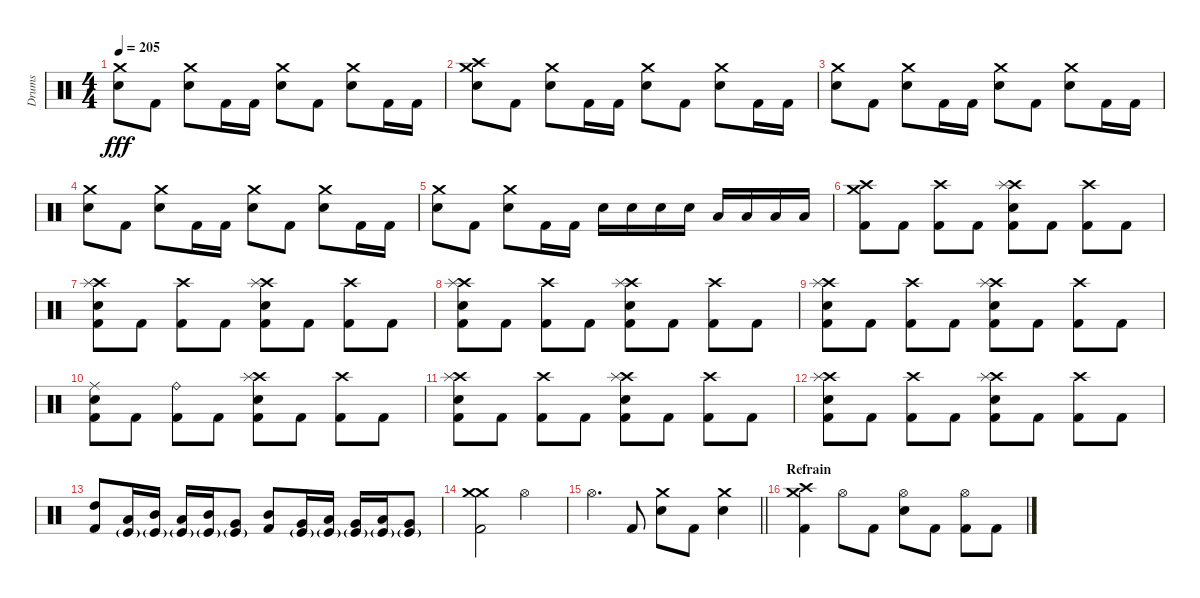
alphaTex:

\track ("Drums" "Drums") {instrument percussion}
\staff {score}
\articulation defaults
\ts (4 4)
\tempo 205
\clef neutral
\ks c
("Crash medium (hit)" "Electric Snare (hit)").8{dy fff} "Kick (hit) 2".8 ("Crash medium (hit)" "Electric Snare (hit)").8 "Kick (hit) 2".16 "Kick (hit) 2".16 ("Crash medium (hit)" "Electric Snare (hit)").8 "Kick (hit) 2".8 ("Crash medium (hit)" "Electric Snare (hit)").8 "Kick (hit) 2".16 "Kick (hit) 2".16 |
("Crash medium (hit)" "Crash high (hit)" "Electric Snare (hit)").8 "Kick (hit) 2".8 ("Crash medium (hit)" "Electric Snare (hit)").8 "Kick (hit) 2".16 "Kick (hit) 2".16 ("Crash medium (hit)" "Electric Snare (hit)").8 "Kick (hit) 2".8 ("Crash medium (hit)" "Electric Snare (hit)").8 "Kick (hit) 2".16 "Kick (hit) 2".16 |
("Crash medium (hit)" "Electric Snare (hit)").8 "Kick (hit) 2".8 ("Crash medium (hit)" "Electric Snare (hit)").8 "Kick (hit) 2".16 "Kick (hit) 2".16 ("Crash medium (hit)" "Electric Snare (hit)").8 "Kick (hit) 2".8 ("Crash medium (hit)" "Electric Snare (hit)").8 "Kick (hit) 2".16 "Kick (hit) 2".16 |
("Crash medium (hit)" "Electric Snare (hit)").8 "Kick (hit) 2".8 ("Crash medium (hit)" "Electric Snare (hit)").8 "Kick (hit) 2".16 "Kick (hit) 2".16 ("Crash medium (hit)" "Electric Snare (hit)").8 "Kick (hit) 2".8 ("Crash medium (hit)" "Electric Snare (hit)").8 "Kick (hit) 2".16 "Kick (hit) 2".16 |
("Crash medium (hit)" "Electric Snare (hit)").8 "Kick (hit) 2".8 ("Crash medium (hit)" "Electric Snare (hit)").8 "Kick (hit) 2".16 "Kick (hit) 2".16 "Electric Snare (hit)".16 "Electric Snare (hit)".16 "Electric Snare (hit)".16 "Electric Snare (hit)".16 "Low Tom (hit)".16 "Low Tom (hit)".16 "Low Tom (hit)".16 "Low Tom (hit)".16 |
("Crash medium (hit)" "Crash high (hit)" "Kick (hit) 2").8 "Kick (hit) 2".8 ("Crash high (hit)" "Kick (hit) 2").8 "Kick (hit) 2".8 ("Crash high (hit)" "Splash (hit)" "Electric Snare (hit)" "Kick (hit) 2").8 "Kick (hit) 2".8 ("Crash high (hit)" "Kick (hit) 2").8 "Kick (hit) 2".8 |
("Crash high (hit)" "Splash (hit)" "Electric Snare (hit)" "Kick (hit) 2").8 "Kick (hit) 2".8 ("Crash high (hit)" "Kick (hit) 2").8 "Kick (hit) 2".8 ("Crash high (hit)" "Splash (hit)" "Electric Snare (hit)" "Kick (hit) 2").8 "Kick (hit) 2".8 ("Crash high (hit)" "Kick (hit) 2").8 "Kick (hit) 2".8 |
("Crash high (hit)" "Splash (hit)" "Electric Snare (hit)" "Kick (hit) 2").8 "Kick (hit) 2".8 ("Crash high (hit)" "Kick (hit) 2").8 "Kick (hit) 2".8 ("Crash high (hit)" "Splash (hit)" "Electric Snare (hit)" "Kick (hit) 2").8 "Kick (hit) 2".8 ("Crash high (hit)" "Kick (hit) 2").8 "Kick (hit) 2".8 |
("Crash high (hit)" "Splash (hit)" "Electric Snare (hit)" "Kick (hit) 2").8 "Kick (hit) 2".8 ("Crash high (hit)" "Kick (hit) 2").8 "Kick (hit) 2".8 ("Crash high (hit)" "Splash (hit)" "Electric Snare (hit)" "Kick (hit) 2").8 "Kick (hit) 2".8 ("Crash high (hit)" "Kick (hit) 2").8 "Kick (hit) 2".8 |
("Ride (middle)" "Electric Snare (hit)" "Kick (hit) 2").8 "Kick (hit) 2".8 ("Ride (bell)" "Kick (hit) 2").8 "Kick (hit) 2".8 ("Crash high (hit)" "Splash (hit)" "Electric Snare (hit)" "Kick (hit) 2").8 "Kick (hit) 2".8 ("Crash high (hit)" "Kick (hit) 2").8 "Kick (hit) 2".8 |
("Crash high (hit)" "Splash (hit)" "Electric Snare (hit)" "Kick (hit) 2").8 "Kick (hit) 2".8 ("Crash high (hit)" "Kick (hit) 2").8 "Kick (hit) 2".8 ("Crash high (hit)" "Splash (hit)" "Electric Snare (hit)" "Kick (hit) 2").8 "Kick (hit) 2".8 ("Crash high (hit)" "Kick (hit) 2").8 "Kick (hit) 2".8 |
("Crash high (hit)" "Splash (hit)" "Electric Snare (hit)" "Kick (hit) 2").8 "Kick (hit) 2".8 ("Crash high (hit)" "Kick (hit) 2").8 "Kick (hit) 2".8 ("Crash high (hit)" "Splash (hit)" "Electric Snare (hit)" "Kick (hit) 2").8 "Kick (hit) 2".8 ("Crash high (hit)" "Kick (hit) 2").8 "Kick (hit) 2".8 |
("High Tom (hit)" "Kick (hit) 2").8 ("Low Tom (hit)" "Kick (hit)"{g}).16 ("Mid Tom (hit)" "Kick (hit)"{g}).16 ("Low Tom (hit)" "Kick (hit)"{g}).16 ("Mid Tom (hit)" "Kick (hit)"{g}).16 ("Very Low Tom (hit)" "Kick (hit)"{g}).8 ("Mid Tom (hit)" "Kick (hit) 2").8 ("Very Low Tom (hit)" "Kick (hit)"{g}).16 ("Low Tom (hit)" "Kick (hit)"{g}).16 ("Very Low Tom (hit)" "Kick (hit)"{g}).16 ("Low Tom (hit)" "Kick (hit)"{g}).16 ("Very Low Tom (hit)" "Kick (hit)"{g}).8 |
("Crash medium (hit)" "Crash medium (hit)" "Kick (hit) 2").2 "Hi-Hat (open)".2 |
\barLineRight lightlight "Hi-Hat (open)".4{d} "Kick (hit) 2".8
("Crash medium (hit)" "Electric Snare (hit)").8 "Kick (hit) 2".8 ("Crash medium (hit)" "Electric Snare (hit)").4 |
\section ("" "Refrain ")
("Crash medium (hit)" "Crash high (hit)" "Kick (hit) 2").4 "Hi-Hat (open)".8 "Kick (hit) 2".8 ("Hi-Hat (open)" "Electric Snare (hit)").8 "Kick (hit) 2".8 ("Hi-Hat (open)" "Kick (hit) 2").8 "Kick (hit) 2".8
